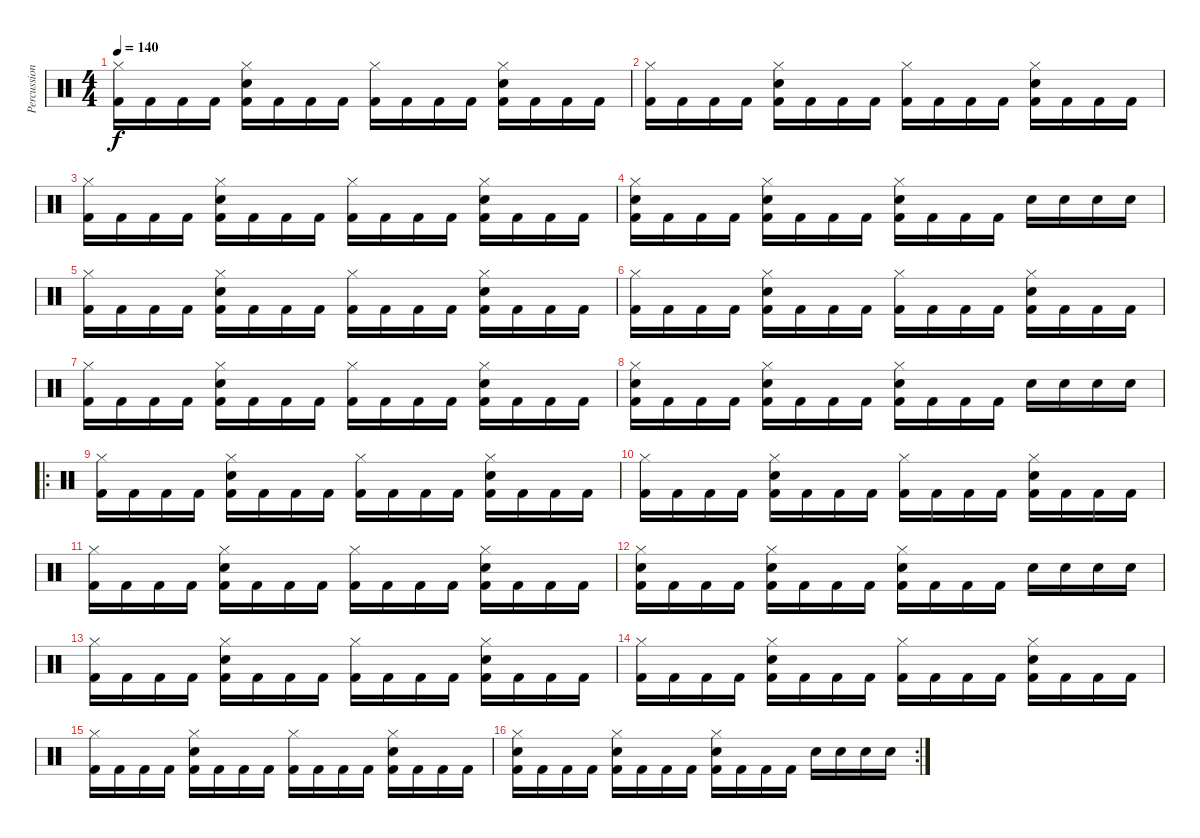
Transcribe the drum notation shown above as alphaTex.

\track ("Percussion" "Percussion") {instrument percussion}
\staff {score}
\articulation defaults
\ts (4 4)
\tempo 140
\clef neutral
\ks c
("Hi-Hat (closed)" "Kick (hit) 2").16{dy f} "Kick (hit) 2".16 "Kick (hit) 2".16 "Kick (hit) 2".16 ("Electric Snare (hit)" "Hi-Hat (closed)" "Kick (hit) 2").16 "Kick (hit) 2".16 "Kick (hit) 2".16 "Kick (hit) 2".16 ("Hi-Hat (closed)" "Kick (hit) 2").16 "Kick (hit) 2".16 "Kick (hit) 2".16 "Kick (hit) 2".16 ("Electric Snare (hit)" "Hi-Hat (closed)" "Kick (hit) 2").16 "Kick (hit) 2".16 "Kick (hit) 2".16 "Kick (hit) 2".16 |
("Hi-Hat (closed)" "Kick (hit) 2").16 "Kick (hit) 2".16 "Kick (hit) 2".16 "Kick (hit) 2".16 ("Electric Snare (hit)" "Hi-Hat (closed)" "Kick (hit) 2").16 "Kick (hit) 2".16 "Kick (hit) 2".16 "Kick (hit) 2".16 ("Hi-Hat (closed)" "Kick (hit) 2").16 "Kick (hit) 2".16 "Kick (hit) 2".16 "Kick (hit) 2".16 ("Electric Snare (hit)" "Hi-Hat (closed)" "Kick (hit) 2").16 "Kick (hit) 2".16 "Kick (hit) 2".16 "Kick (hit) 2".16 |
("Hi-Hat (closed)" "Kick (hit) 2").16 "Kick (hit) 2".16 "Kick (hit) 2".16 "Kick (hit) 2".16 ("Electric Snare (hit)" "Hi-Hat (closed)" "Kick (hit) 2").16 "Kick (hit) 2".16 "Kick (hit) 2".16 "Kick (hit) 2".16 ("Hi-Hat (closed)" "Kick (hit) 2").16 "Kick (hit) 2".16 "Kick (hit) 2".16 "Kick (hit) 2".16 ("Electric Snare (hit)" "Hi-Hat (closed)" "Kick (hit) 2").16 "Kick (hit) 2".16 "Kick (hit) 2".16 "Kick (hit) 2".16 |
("Electric Snare (hit)" "Hi-Hat (closed)" "Kick (hit) 2").16 "Kick (hit) 2".16 "Kick (hit) 2".16 "Kick (hit) 2".16 ("Electric Snare (hit)" "Hi-Hat (closed)" "Kick (hit) 2").16 "Kick (hit) 2".16 "Kick (hit) 2".16 "Kick (hit) 2".16 ("Electric Snare (hit)" "Hi-Hat (closed)" "Kick (hit) 2").16 "Kick (hit) 2".16 "Kick (hit) 2".16 "Kick (hit) 2".16 "Electric Snare (hit)".16 "Electric Snare (hit)".16 "Electric Snare (hit)".16 "Electric Snare (hit)".16 |
("Hi-Hat (closed)" "Kick (hit) 2").16 "Kick (hit) 2".16 "Kick (hit) 2".16 "Kick (hit) 2".16 ("Electric Snare (hit)" "Hi-Hat (closed)" "Kick (hit) 2").16 "Kick (hit) 2".16 "Kick (hit) 2".16 "Kick (hit) 2".16 ("Hi-Hat (closed)" "Kick (hit) 2").16 "Kick (hit) 2".16 "Kick (hit) 2".16 "Kick (hit) 2".16 ("Electric Snare (hit)" "Hi-Hat (closed)" "Kick (hit) 2").16 "Kick (hit) 2".16 "Kick (hit) 2".16 "Kick (hit) 2".16 |
("Hi-Hat (closed)" "Kick (hit) 2").16 "Kick (hit) 2".16 "Kick (hit) 2".16 "Kick (hit) 2".16 ("Electric Snare (hit)" "Hi-Hat (closed)" "Kick (hit) 2").16 "Kick (hit) 2".16 "Kick (hit) 2".16 "Kick (hit) 2".16 ("Hi-Hat (closed)" "Kick (hit) 2").16 "Kick (hit) 2".16 "Kick (hit) 2".16 "Kick (hit) 2".16 ("Electric Snare (hit)" "Hi-Hat (closed)" "Kick (hit) 2").16 "Kick (hit) 2".16 "Kick (hit) 2".16 "Kick (hit) 2".16 |
("Hi-Hat (closed)" "Kick (hit) 2").16 "Kick (hit) 2".16 "Kick (hit) 2".16 "Kick (hit) 2".16 ("Electric Snare (hit)" "Hi-Hat (closed)" "Kick (hit) 2").16 "Kick (hit) 2".16 "Kick (hit) 2".16 "Kick (hit) 2".16 ("Hi-Hat (closed)" "Kick (hit) 2").16 "Kick (hit) 2".16 "Kick (hit) 2".16 "Kick (hit) 2".16 ("Electric Snare (hit)" "Hi-Hat (closed)" "Kick (hit) 2").16 "Kick (hit) 2".16 "Kick (hit) 2".16 "Kick (hit) 2".16 |
("Electric Snare (hit)" "Hi-Hat (closed)" "Kick (hit) 2").16 "Kick (hit) 2".16 "Kick (hit) 2".16 "Kick (hit) 2".16 ("Electric Snare (hit)" "Hi-Hat (closed)" "Kick (hit) 2").16 "Kick (hit) 2".16 "Kick (hit) 2".16 "Kick (hit) 2".16 ("Electric Snare (hit)" "Hi-Hat (closed)" "Kick (hit) 2").16 "Kick (hit) 2".16 "Kick (hit) 2".16 "Kick (hit) 2".16 "Electric Snare (hit)".16 "Electric Snare (hit)".16 "Electric Snare (hit)".16 "Electric Snare (hit)".16 |
\ro
("Hi-Hat (closed)" "Kick (hit) 2").16 "Kick (hit) 2".16 "Kick (hit) 2".16 "Kick (hit) 2".16 ("Electric Snare (hit)" "Hi-Hat (closed)" "Kick (hit) 2").16 "Kick (hit) 2".16 "Kick (hit) 2".16 "Kick (hit) 2".16 ("Hi-Hat (closed)" "Kick (hit) 2").16 "Kick (hit) 2".16 "Kick (hit) 2".16 "Kick (hit) 2".16 ("Electric Snare (hit)" "Hi-Hat (closed)" "Kick (hit) 2").16 "Kick (hit) 2".16 "Kick (hit) 2".16 "Kick (hit) 2".16 |
("Hi-Hat (closed)" "Kick (hit) 2").16 "Kick (hit) 2".16 "Kick (hit) 2".16 "Kick (hit) 2".16 ("Electric Snare (hit)" "Hi-Hat (closed)" "Kick (hit) 2").16 "Kick (hit) 2".16 "Kick (hit) 2".16 "Kick (hit) 2".16 ("Hi-Hat (closed)" "Kick (hit) 2").16 "Kick (hit) 2".16 "Kick (hit) 2".16 "Kick (hit) 2".16 ("Electric Snare (hit)" "Hi-Hat (closed)" "Kick (hit) 2").16 "Kick (hit) 2".16 "Kick (hit) 2".16 "Kick (hit) 2".16 |
("Hi-Hat (closed)" "Kick (hit) 2").16 "Kick (hit) 2".16 "Kick (hit) 2".16 "Kick (hit) 2".16 ("Electric Snare (hit)" "Hi-Hat (closed)" "Kick (hit) 2").16 "Kick (hit) 2".16 "Kick (hit) 2".16 "Kick (hit) 2".16 ("Hi-Hat (closed)" "Kick (hit) 2").16 "Kick (hit) 2".16 "Kick (hit) 2".16 "Kick (hit) 2".16 ("Electric Snare (hit)" "Hi-Hat (closed)" "Kick (hit) 2").16 "Kick (hit) 2".16 "Kick (hit) 2".16 "Kick (hit) 2".16 |
("Electric Snare (hit)" "Hi-Hat (closed)" "Kick (hit) 2").16 "Kick (hit) 2".16 "Kick (hit) 2".16 "Kick (hit) 2".16 ("Electric Snare (hit)" "Hi-Hat (closed)" "Kick (hit) 2").16 "Kick (hit) 2".16 "Kick (hit) 2".16 "Kick (hit) 2".16 ("Electric Snare (hit)" "Hi-Hat (closed)" "Kick (hit) 2").16 "Kick (hit) 2".16 "Kick (hit) 2".16 "Kick (hit) 2".16 "Electric Snare (hit)".16 "Electric Snare (hit)".16 "Electric Snare (hit)".16 "Electric Snare (hit)".16 |
("Hi-Hat (closed)" "Kick (hit) 2").16 "Kick (hit) 2".16 "Kick (hit) 2".16 "Kick (hit) 2".16 ("Electric Snare (hit)" "Hi-Hat (closed)" "Kick (hit) 2").16 "Kick (hit) 2".16 "Kick (hit) 2".16 "Kick (hit) 2".16 ("Hi-Hat (closed)" "Kick (hit) 2").16 "Kick (hit) 2".16 "Kick (hit) 2".16 "Kick (hit) 2".16 ("Electric Snare (hit)" "Hi-Hat (closed)" "Kick (hit) 2").16 "Kick (hit) 2".16 "Kick (hit) 2".16 "Kick (hit) 2".16 |
("Hi-Hat (closed)" "Kick (hit) 2").16 "Kick (hit) 2".16 "Kick (hit) 2".16 "Kick (hit) 2".16 ("Electric Snare (hit)" "Hi-Hat (closed)" "Kick (hit) 2").16 "Kick (hit) 2".16 "Kick (hit) 2".16 "Kick (hit) 2".16 ("Hi-Hat (closed)" "Kick (hit) 2").16 "Kick (hit) 2".16 "Kick (hit) 2".16 "Kick (hit) 2".16 ("Electric Snare (hit)" "Hi-Hat (closed)" "Kick (hit) 2").16 "Kick (hit) 2".16 "Kick (hit) 2".16 "Kick (hit) 2".16 |
("Hi-Hat (closed)" "Kick (hit) 2").16 "Kick (hit) 2".16 "Kick (hit) 2".16 "Kick (hit) 2".16 ("Electric Snare (hit)" "Hi-Hat (closed)" "Kick (hit) 2").16 "Kick (hit) 2".16 "Kick (hit) 2".16 "Kick (hit) 2".16 ("Hi-Hat (closed)" "Kick (hit) 2").16 "Kick (hit) 2".16 "Kick (hit) 2".16 "Kick (hit) 2".16 ("Electric Snare (hit)" "Hi-Hat (closed)" "Kick (hit) 2").16 "Kick (hit) 2".16 "Kick (hit) 2".16 "Kick (hit) 2".16 |
\rc 2
("Electric Snare (hit)" "Hi-Hat (closed)" "Kick (hit) 2").16 "Kick (hit) 2".16 "Kick (hit) 2".16 "Kick (hit) 2".16 ("Electric Snare (hit)" "Hi-Hat (closed)" "Kick (hit) 2").16 "Kick (hit) 2".16 "Kick (hit) 2".16 "Kick (hit) 2".16 ("Electric Snare (hit)" "Hi-Hat (closed)" "Kick (hit) 2").16 "Kick (hit) 2".16 "Kick (hit) 2".16 "Kick (hit) 2".16 "Electric Snare (hit)".16 "Electric Snare (hit)".16 "Electric Snare (hit)".16 "Electric Snare (hit)".16
